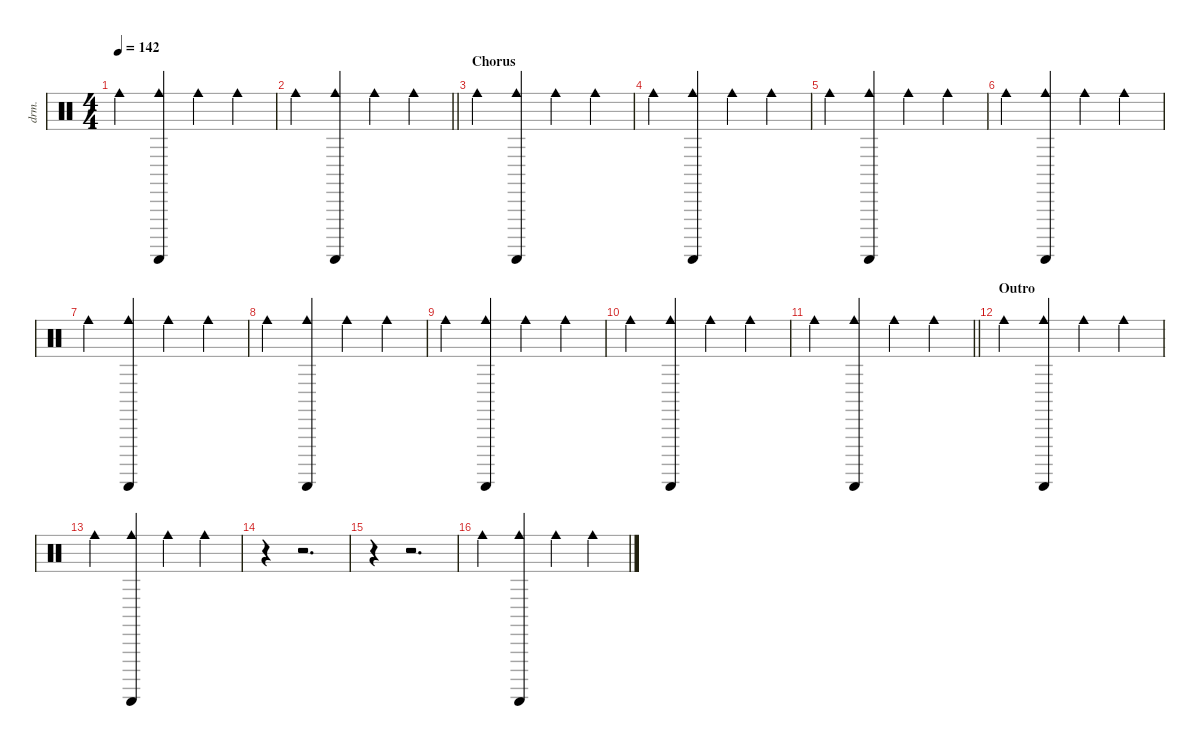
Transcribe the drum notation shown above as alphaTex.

\defaultSystemsLayout 4
\hideDynamics
\bracketExtendMode nobrackets
\otherSystemsTrackNameOrientation horizontal
\track ("Percussion" "drm.") {instrument percussion}
\staff {score}
\articulation defaults
\ts (4 4)
\tempo 142
\clef neutral
\ks c "Cowbell medium (hit)".4{dy mf beam Down}
("Guiro (scrap-return)" "Cowbell medium (hit)").4{dy p beam Up} "Cowbell medium (hit)".4{dy mf beam Down} "Cowbell medium (hit)".4{beam Down} |
\barLineRight lightlight "Cowbell medium (hit)".4{beam Down}
("Guiro (scrap-return)" "Cowbell medium (hit)").4{dy p beam Up} "Cowbell medium (hit)".4{dy mf beam Down} "Cowbell medium (hit)".4{beam Down} |
\section ("" "Chorus")
"Cowbell medium (hit)".4{beam Down} ("Guiro (scrap-return)" "Cowbell medium (hit)").4{dy p beam Up} "Cowbell medium (hit)".4{dy mf beam Down} "Cowbell medium (hit)".4{beam Down} |
"Cowbell medium (hit)".4{beam Down} ("Guiro (scrap-return)" "Cowbell medium (hit)").4{dy p beam Up} "Cowbell medium (hit)".4{dy mf beam Down} "Cowbell medium (hit)".4{beam Down} |
"Cowbell medium (hit)".4{beam Down} ("Guiro (scrap-return)" "Cowbell medium (hit)").4{dy p beam Up} "Cowbell medium (hit)".4{dy mf beam Down} "Cowbell medium (hit)".4{beam Down} |
"Cowbell medium (hit)".4{beam Down} ("Guiro (scrap-return)" "Cowbell medium (hit)").4{dy p beam Up} "Cowbell medium (hit)".4{dy mf beam Down} "Cowbell medium (hit)".4{beam Down} |
"Cowbell medium (hit)".4{beam Down} ("Guiro (scrap-return)" "Cowbell medium (hit)").4{dy p beam Up} "Cowbell medium (hit)".4{dy mf beam Down} "Cowbell medium (hit)".4{beam Down} |
"Cowbell medium (hit)".4{beam Down} ("Guiro (scrap-return)" "Cowbell medium (hit)").4{dy p beam Up} "Cowbell medium (hit)".4{dy mf beam Down} "Cowbell medium (hit)".4{beam Down} |
"Cowbell medium (hit)".4{beam Down} ("Guiro (scrap-return)" "Cowbell medium (hit)").4{dy p beam Up} "Cowbell medium (hit)".4{dy mf beam Down} "Cowbell medium (hit)".4{beam Down} |
"Cowbell medium (hit)".4{beam Down} ("Guiro (scrap-return)" "Cowbell medium (hit)").4{dy p beam Up} "Cowbell medium (hit)".4{dy mf beam Down} "Cowbell medium (hit)".4{beam Down} |
\barLineRight lightlight "Cowbell medium (hit)".4{beam Down}
("Guiro (scrap-return)" "Cowbell medium (hit)").4{dy p beam Up} "Cowbell medium (hit)".4{dy mf beam Down} "Cowbell medium (hit)".4{beam Down} |
\section ("" "Outro")
"Cowbell medium (hit)".4{beam Down} ("Guiro (scrap-return)" "Cowbell medium (hit)").4{dy p beam Up} "Cowbell medium (hit)".4{dy mf beam Down} "Cowbell medium (hit)".4{beam Down} |
"Cowbell medium (hit)".4{beam Down} ("Guiro (scrap-return)" "Cowbell medium (hit)").4{dy p beam Up} "Cowbell medium (hit)".4{dy mf beam Down} "Cowbell medium (hit)".4{beam Down} |
r.4{beam Down} r.2{d beam Down} |
r.4{beam Down} r.2{d beam Down} |
"Cowbell medium (hit)".4{beam Down} ("Guiro (scrap-return)" "Cowbell medium (hit)").4{dy p beam Up} "Cowbell medium (hit)".4{dy mf beam Down} "Cowbell medium (hit)".4{beam Down}
